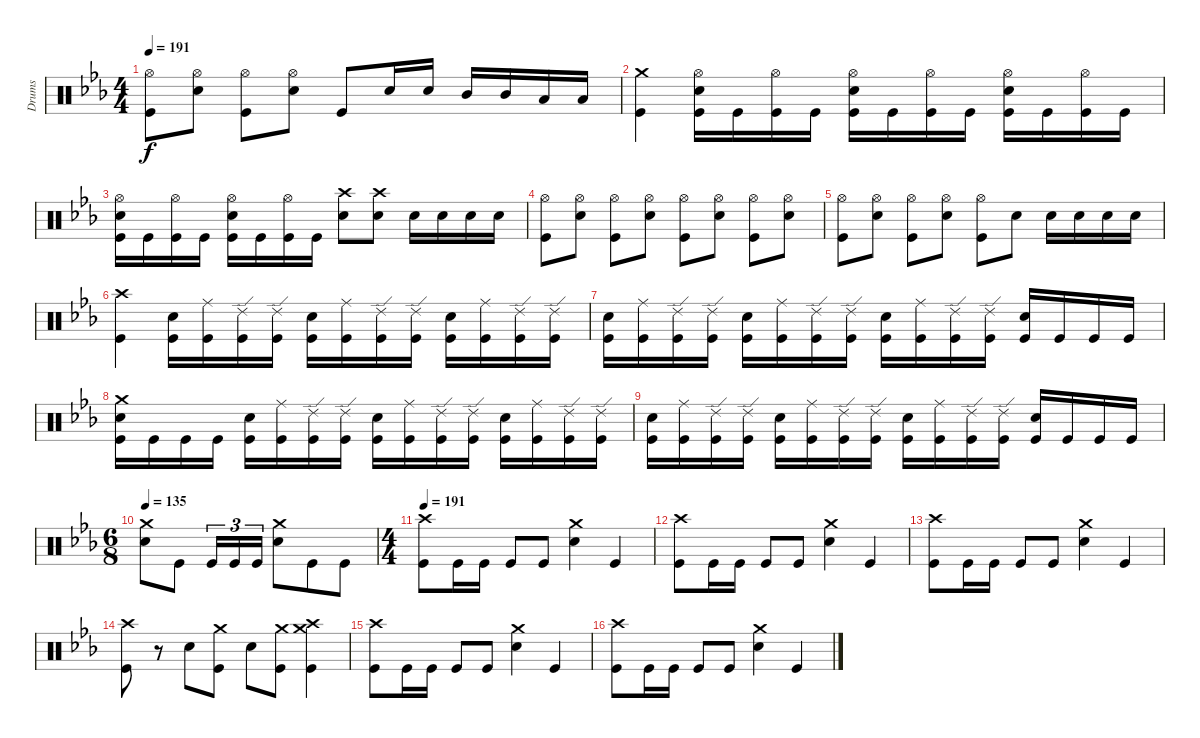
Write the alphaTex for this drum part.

\track ("Drums" "Drums") {instrument percussion}
\staff {score}
\articulation defaults
\ts (4 4)
\tempo 191
\clef neutral
\ks cminor
("Hi-Hat (open)" "Kick (hit)").8{dy f} ("Hi-Hat (open)" "Electric Snare (hit)").8 ("Hi-Hat (open)" "Kick (hit)").8 ("Hi-Hat (open)" "Electric Snare (hit)").8 "Kick (hit)".8 "Electric Snare (hit)".16 "Electric Snare (hit)".16 "Mid Tom (hit)".16 "Mid Tom (hit)".16 "Low Tom (hit)".16 "Low Tom (hit)".16 |
("Crash medium (hit)" "Kick (hit)").4 ("Hi-Hat (open)" "Electric Snare (hit)" "Kick (hit)").16 "Kick (hit)".16 ("Hi-Hat (open)" "Kick (hit)").16 "Kick (hit)".16 ("Hi-Hat (open)" "Electric Snare (hit)" "Kick (hit)").16 "Kick (hit)".16 ("Hi-Hat (open)" "Kick (hit)").16 "Kick (hit)".16 ("Hi-Hat (open)" "Electric Snare (hit)" "Kick (hit)").16 "Kick (hit)".16 ("Hi-Hat (open)" "Kick (hit)").16 "Kick (hit)".16 |
("Hi-Hat (open)" "Electric Snare (hit)" "Kick (hit)").16 "Kick (hit)".16 ("Hi-Hat (open)" "Kick (hit)").16 "Kick (hit)".16 ("Hi-Hat (open)" "Electric Snare (hit)" "Kick (hit)").16 "Kick (hit)".16 ("Hi-Hat (open)" "Kick (hit)").16 "Kick (hit)".16 ("Crash high (hit)" "Electric Snare (hit)").8 ("Crash high (hit)" "Electric Snare (hit)").8 "Electric Snare (hit)".16 "Electric Snare (hit)".16 "Electric Snare (hit)".16 "Electric Snare (hit)".16 |
("Hi-Hat (open)" "Kick (hit)").8 ("Hi-Hat (open)" "Electric Snare (hit)").8 ("Hi-Hat (open)" "Kick (hit)").8 ("Hi-Hat (open)" "Electric Snare (hit)").8 ("Hi-Hat (open)" "Kick (hit)").8 ("Hi-Hat (open)" "Electric Snare (hit)").8 ("Hi-Hat (open)" "Kick (hit)").8 ("Hi-Hat (open)" "Electric Snare (hit)").8 |
("Hi-Hat (open)" "Kick (hit)").8 ("Hi-Hat (open)" "Electric Snare (hit)").8 ("Hi-Hat (open)" "Kick (hit)").8 ("Hi-Hat (open)" "Electric Snare (hit)").8 ("Hi-Hat (open)" "Kick (hit)").8 "Electric Snare (hit)".8 "Electric Snare (hit)".16 "Electric Snare (hit)".16 "Electric Snare (hit)".16 "Electric Snare (hit)".16 |
("Crash high (hit)" "Kick (hit)").4 ("Electric Snare (hit)" "Kick (hit)").16 ("Ride (middle)" "Kick (hit)").16 ("Ride (edge) 2" "Kick (hit)").16 ("Ride (edge) 2" "Kick (hit)").16 ("Electric Snare (hit)" "Kick (hit)").16 ("Ride (middle)" "Kick (hit)").16 ("Ride (edge) 2" "Kick (hit)").16 ("Ride (edge) 2" "Kick (hit)").16 ("Electric Snare (hit)" "Kick (hit)").16 ("Ride (middle)" "Kick (hit)").16 ("Ride (edge) 2" "Kick (hit)").16 ("Ride (edge) 2" "Kick (hit)").16 |
("Electric Snare (hit)" "Kick (hit)").16 ("Ride (middle)" "Kick (hit)").16 ("Ride (edge) 2" "Kick (hit)").16 ("Ride (edge) 2" "Kick (hit)").16 ("Electric Snare (hit)" "Kick (hit)").16 ("Ride (middle)" "Kick (hit)").16 ("Ride (edge) 2" "Kick (hit)").16 ("Ride (edge) 2" "Kick (hit)").16 ("Electric Snare (hit)" "Kick (hit)").16 ("Ride (middle)" "Kick (hit)").16 ("Ride (edge) 2" "Kick (hit)").16 ("Ride (edge) 2" "Kick (hit)").16 ("Electric Snare (hit)" "Kick (hit)").16 "Kick (hit)".16 "Kick (hit)".16 "Kick (hit)".16 |
("Crash medium (hit)" "Electric Snare (hit)" "Kick (hit)").16 "Kick (hit)".16 "Kick (hit)".16 "Kick (hit)".16 ("Electric Snare (hit)" "Kick (hit)").16 ("Ride (middle)" "Kick (hit)").16 ("Ride (edge) 2" "Kick (hit)").16 ("Ride (edge) 2" "Kick (hit)").16 ("Electric Snare (hit)" "Kick (hit)").16 ("Ride (middle)" "Kick (hit)").16 ("Ride (edge) 2" "Kick (hit)").16 ("Ride (edge) 2" "Kick (hit)").16 ("Electric Snare (hit)" "Kick (hit)").16 ("Ride (middle)" "Kick (hit)").16 ("Ride (edge) 2" "Kick (hit)").16 ("Ride (edge) 2" "Kick (hit)").16 |
("Electric Snare (hit)" "Kick (hit)").16 ("Ride (middle)" "Kick (hit)").16 ("Ride (edge) 2" "Kick (hit)").16 ("Ride (edge) 2" "Kick (hit)").16 ("Electric Snare (hit)" "Kick (hit)").16 ("Ride (middle)" "Kick (hit)").16 ("Ride (edge) 2" "Kick (hit)").16 ("Ride (edge) 2" "Kick (hit)").16 ("Electric Snare (hit)" "Kick (hit)").16 ("Ride (middle)" "Kick (hit)").16 ("Ride (edge) 2" "Kick (hit)").16 ("Ride (edge) 2" "Kick (hit)").16 ("Electric Snare (hit)" "Kick (hit)").16 "Kick (hit)".16 "Kick (hit)".16 "Kick (hit)".16 |
\ts (6 8)
\tempo 135
("Crash medium (hit)" "Electric Snare (hit)").8 "Kick (hit)".8 "Kick (hit)".16{tu (3 2)} "Kick (hit)".16{tu (3 2)} "Kick (hit)".16{tu (3 2)} ("Crash medium (hit)" "Electric Snare (hit)").8 "Kick (hit)".8 "Kick (hit)".8 |
\ts (4 4)
\tempo 191
("Crash high (hit)" "Kick (hit)").8 "Kick (hit)".16 "Kick (hit)".16 "Kick (hit)".8 "Kick (hit)".8 ("Crash medium (hit)" "Electric Snare (hit)").4 "Kick (hit)".4 |
("Crash high (hit)" "Kick (hit)").8 "Kick (hit)".16 "Kick (hit)".16 "Kick (hit)".8 "Kick (hit)".8 ("Crash medium (hit)" "Electric Snare (hit)").4 "Kick (hit)".4 |
("Crash high (hit)" "Kick (hit)").8 "Kick (hit)".16 "Kick (hit)".16 "Kick (hit)".8 "Kick (hit)".8 ("Crash medium (hit)" "Electric Snare (hit)").4 "Kick (hit)".4 |
("Crash high (hit)" "Kick (hit)").8 r.8 "Electric Snare (hit)".8 ("Crash medium (hit)" "Kick (hit)").8 "Electric Snare (hit)".8 ("Crash medium (hit)" "Kick (hit)").8 ("Crash medium (hit)" "Crash high (hit)" "Kick (hit)").4 |
("Crash high (hit)" "Kick (hit)").8 "Kick (hit)".16 "Kick (hit)".16 "Kick (hit)".8 "Kick (hit)".8 ("Crash medium (hit)" "Electric Snare (hit)").4 "Kick (hit)".4 |
("Crash high (hit)" "Kick (hit)").8 "Kick (hit)".16 "Kick (hit)".16 "Kick (hit)".8 "Kick (hit)".8 ("Crash medium (hit)" "Electric Snare (hit)").4 "Kick (hit)".4
